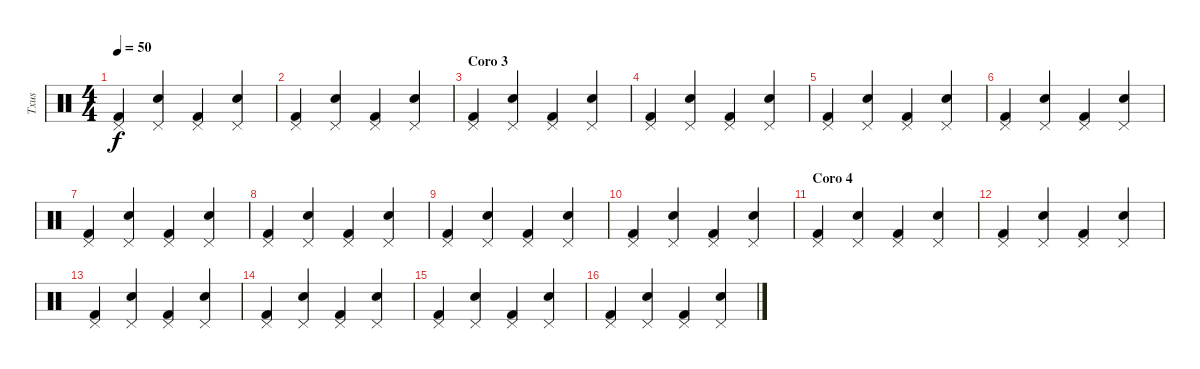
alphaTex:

\track ("Txus" "Txus") {instrument percussion}
\staff {score}
\articulation defaults
\ts (4 4)
\tempo 50
\clef neutral
\ks c
("Pedal Hi-Hat (hit)" "Kick (hit) 2").4{dy f} ("Pedal Hi-Hat (hit)" "Snare (hit) 2").4 ("Pedal Hi-Hat (hit)" "Kick (hit) 2").4 ("Pedal Hi-Hat (hit)" "Snare (hit) 2").4 |
("Pedal Hi-Hat (hit)" "Kick (hit) 2").4 ("Pedal Hi-Hat (hit)" "Snare (hit) 2").4 ("Pedal Hi-Hat (hit)" "Kick (hit) 2").4 ("Pedal Hi-Hat (hit)" "Snare (hit) 2").4 |
\section ("" "Coro 3")
("Pedal Hi-Hat (hit)" "Kick (hit) 2").4 ("Pedal Hi-Hat (hit)" "Snare (hit) 2").4 ("Pedal Hi-Hat (hit)" "Kick (hit) 2").4 ("Pedal Hi-Hat (hit)" "Snare (hit) 2").4 |
("Pedal Hi-Hat (hit)" "Kick (hit) 2").4 ("Pedal Hi-Hat (hit)" "Snare (hit) 2").4 ("Pedal Hi-Hat (hit)" "Kick (hit) 2").4 ("Pedal Hi-Hat (hit)" "Snare (hit) 2").4 |
("Pedal Hi-Hat (hit)" "Kick (hit) 2").4 ("Pedal Hi-Hat (hit)" "Snare (hit) 2").4 ("Pedal Hi-Hat (hit)" "Kick (hit) 2").4 ("Pedal Hi-Hat (hit)" "Snare (hit) 2").4 |
("Pedal Hi-Hat (hit)" "Kick (hit) 2").4 ("Pedal Hi-Hat (hit)" "Snare (hit) 2").4 ("Pedal Hi-Hat (hit)" "Kick (hit) 2").4 ("Pedal Hi-Hat (hit)" "Snare (hit) 2").4 |
("Pedal Hi-Hat (hit)" "Kick (hit) 2").4 ("Pedal Hi-Hat (hit)" "Snare (hit) 2").4 ("Pedal Hi-Hat (hit)" "Kick (hit) 2").4 ("Pedal Hi-Hat (hit)" "Snare (hit) 2").4 |
("Pedal Hi-Hat (hit)" "Kick (hit) 2").4 ("Pedal Hi-Hat (hit)" "Snare (hit) 2").4 ("Pedal Hi-Hat (hit)" "Kick (hit) 2").4 ("Pedal Hi-Hat (hit)" "Snare (hit) 2").4 |
("Pedal Hi-Hat (hit)" "Kick (hit) 2").4 ("Pedal Hi-Hat (hit)" "Snare (hit) 2").4 ("Pedal Hi-Hat (hit)" "Kick (hit) 2").4 ("Pedal Hi-Hat (hit)" "Snare (hit) 2").4 |
("Pedal Hi-Hat (hit)" "Kick (hit) 2").4 ("Pedal Hi-Hat (hit)" "Snare (hit) 2").4 ("Pedal Hi-Hat (hit)" "Kick (hit) 2").4 ("Pedal Hi-Hat (hit)" "Snare (hit) 2").4 |
\section ("" "Coro 4")
("Pedal Hi-Hat (hit)" "Kick (hit) 2").4 ("Pedal Hi-Hat (hit)" "Snare (hit) 2").4 ("Pedal Hi-Hat (hit)" "Kick (hit) 2").4 ("Pedal Hi-Hat (hit)" "Snare (hit) 2").4 |
("Pedal Hi-Hat (hit)" "Kick (hit) 2").4 ("Pedal Hi-Hat (hit)" "Snare (hit) 2").4 ("Pedal Hi-Hat (hit)" "Kick (hit) 2").4 ("Pedal Hi-Hat (hit)" "Snare (hit) 2").4 |
("Pedal Hi-Hat (hit)" "Kick (hit) 2").4 ("Pedal Hi-Hat (hit)" "Snare (hit) 2").4 ("Pedal Hi-Hat (hit)" "Kick (hit) 2").4 ("Pedal Hi-Hat (hit)" "Snare (hit) 2").4 |
("Pedal Hi-Hat (hit)" "Kick (hit) 2").4 ("Pedal Hi-Hat (hit)" "Snare (hit) 2").4 ("Pedal Hi-Hat (hit)" "Kick (hit) 2").4 ("Pedal Hi-Hat (hit)" "Snare (hit) 2").4 |
("Pedal Hi-Hat (hit)" "Kick (hit) 2").4 ("Pedal Hi-Hat (hit)" "Snare (hit) 2").4 ("Pedal Hi-Hat (hit)" "Kick (hit) 2").4 ("Pedal Hi-Hat (hit)" "Snare (hit) 2").4 |
("Pedal Hi-Hat (hit)" "Kick (hit) 2").4 ("Pedal Hi-Hat (hit)" "Snare (hit) 2").4 ("Pedal Hi-Hat (hit)" "Kick (hit) 2").4 ("Pedal Hi-Hat (hit)" "Snare (hit) 2").4
